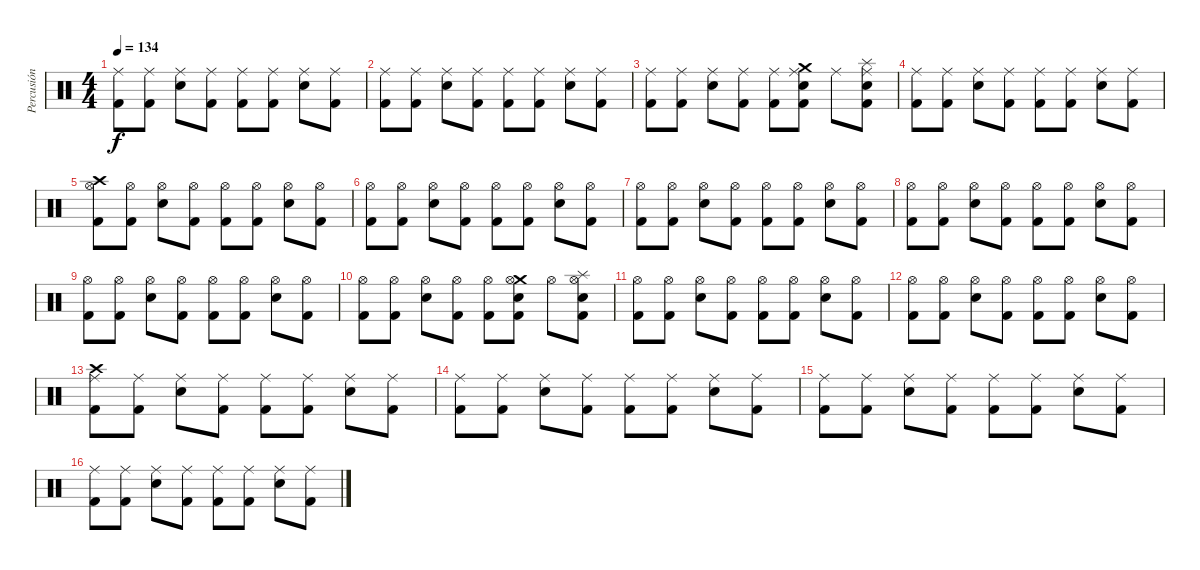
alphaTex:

\track ("Percusión" "Percusión") {instrument percussion}
\staff {score}
\articulation defaults
\ts (4 4)
\tempo 134
\clef neutral
\ks c
("Ride (middle)" "Kick (hit) 2").8{dy f} ("Ride (middle)" "Kick (hit) 2").8 ("Ride (middle)" "Snare (hit) 2").8 ("Ride (middle)" "Kick (hit) 2").8 ("Ride (middle)" "Kick (hit) 2").8 ("Ride (middle)" "Kick (hit) 2").8 ("Ride (middle)" "Snare (hit) 2").8 ("Ride (middle)" "Kick (hit) 2").8 |
("Ride (middle)" "Kick (hit) 2").8 ("Ride (middle)" "Kick (hit) 2").8 ("Ride (middle)" "Snare (hit) 2").8 ("Ride (middle)" "Kick (hit) 2").8 ("Ride (middle)" "Kick (hit) 2").8 ("Ride (middle)" "Kick (hit) 2").8 ("Ride (middle)" "Snare (hit) 2").8 ("Ride (middle)" "Kick (hit) 2").8 |
("Ride (middle)" "Kick (hit) 2").8 ("Ride (middle)" "Kick (hit) 2").8 ("Ride (middle)" "Snare (hit) 2").8 ("Ride (middle)" "Kick (hit) 2").8 ("Ride (middle)" "Kick (hit) 2").8 ("Crash medium (hit)" "Ride (middle)" "Snare (hit) 2" "Kick (hit) 2").8 "Ride (middle)".8 ("Splash (hit)" "Ride (middle)" "Snare (hit) 2" "Kick (hit) 2").8 |
("Ride (middle)" "Kick (hit) 2").8 ("Ride (middle)" "Kick (hit) 2").8 ("Ride (middle)" "Snare (hit) 2").8 ("Ride (middle)" "Kick (hit) 2").8 ("Ride (middle)" "Kick (hit) 2").8 ("Ride (middle)" "Kick (hit) 2").8 ("Ride (middle)" "Snare (hit) 2").8 ("Ride (middle)" "Kick (hit) 2").8 |
("Crash high (hit)" "Hi-Hat (open)" "Kick (hit) 2").8 ("Hi-Hat (open)" "Kick (hit) 2").8 ("Hi-Hat (open)" "Snare (hit) 2").8 ("Hi-Hat (open)" "Kick (hit) 2").8 ("Hi-Hat (open)" "Kick (hit) 2").8 ("Hi-Hat (open)" "Kick (hit) 2").8 ("Hi-Hat (open)" "Snare (hit) 2").8 ("Hi-Hat (open)" "Kick (hit) 2").8 |
("Hi-Hat (open)" "Kick (hit) 2").8 ("Hi-Hat (open)" "Kick (hit) 2").8 ("Hi-Hat (open)" "Snare (hit) 2").8 ("Hi-Hat (open)" "Kick (hit) 2").8 ("Hi-Hat (open)" "Kick (hit) 2").8 ("Hi-Hat (open)" "Kick (hit) 2").8 ("Hi-Hat (open)" "Snare (hit) 2").8 ("Hi-Hat (open)" "Kick (hit) 2").8 |
("Hi-Hat (open)" "Kick (hit) 2").8 ("Hi-Hat (open)" "Kick (hit) 2").8 ("Hi-Hat (open)" "Snare (hit) 2").8 ("Hi-Hat (open)" "Kick (hit) 2").8 ("Hi-Hat (open)" "Kick (hit) 2").8 ("Hi-Hat (open)" "Kick (hit) 2").8 ("Hi-Hat (open)" "Snare (hit) 2").8 ("Hi-Hat (open)" "Kick (hit) 2").8 |
("Hi-Hat (open)" "Kick (hit) 2").8 ("Hi-Hat (open)" "Kick (hit) 2").8 ("Hi-Hat (open)" "Snare (hit) 2").8 ("Hi-Hat (open)" "Kick (hit) 2").8 ("Hi-Hat (open)" "Kick (hit) 2").8 ("Hi-Hat (open)" "Kick (hit) 2").8 ("Hi-Hat (open)" "Snare (hit) 2").8 ("Hi-Hat (open)" "Kick (hit) 2").8 |
("Hi-Hat (open)" "Kick (hit) 2").8 ("Hi-Hat (open)" "Kick (hit) 2").8 ("Hi-Hat (open)" "Snare (hit) 2").8 ("Hi-Hat (open)" "Kick (hit) 2").8 ("Hi-Hat (open)" "Kick (hit) 2").8 ("Hi-Hat (open)" "Kick (hit) 2").8 ("Hi-Hat (open)" "Snare (hit) 2").8 ("Hi-Hat (open)" "Kick (hit) 2").8 |
("Hi-Hat (open)" "Kick (hit) 2").8 ("Hi-Hat (open)" "Kick (hit) 2").8 ("Hi-Hat (open)" "Snare (hit) 2").8 ("Hi-Hat (open)" "Kick (hit) 2").8 ("Hi-Hat (open)" "Kick (hit) 2").8 ("Crash medium (hit)" "Hi-Hat (open)" "Snare (hit) 2" "Kick (hit) 2").8 "Hi-Hat (open)".8 ("Splash (hit)" "Hi-Hat (open)" "Snare (hit) 2" "Kick (hit) 2").8 |
("Hi-Hat (open)" "Kick (hit) 2").8 ("Hi-Hat (open)" "Kick (hit) 2").8 ("Hi-Hat (open)" "Snare (hit) 2").8 ("Hi-Hat (open)" "Kick (hit) 2").8 ("Hi-Hat (open)" "Kick (hit) 2").8 ("Hi-Hat (open)" "Kick (hit) 2").8 ("Hi-Hat (open)" "Snare (hit) 2").8 ("Hi-Hat (open)" "Kick (hit) 2").8 |
("Hi-Hat (open)" "Kick (hit) 2").8 ("Hi-Hat (open)" "Kick (hit) 2").8 ("Hi-Hat (open)" "Snare (hit) 2").8 ("Hi-Hat (open)" "Kick (hit) 2").8 ("Hi-Hat (open)" "Kick (hit) 2").8 ("Hi-Hat (open)" "Kick (hit) 2").8 ("Hi-Hat (open)" "Snare (hit) 2").8 ("Hi-Hat (open)" "Kick (hit) 2").8 |
("Crash high (hit)" "Ride (middle)" "Kick (hit) 2").8 ("Ride (middle)" "Kick (hit) 2").8 ("Ride (middle)" "Snare (hit) 2").8 ("Ride (middle)" "Kick (hit) 2").8 ("Ride (middle)" "Kick (hit) 2").8 ("Ride (middle)" "Kick (hit) 2").8 ("Ride (middle)" "Snare (hit) 2").8 ("Ride (middle)" "Kick (hit) 2").8 |
("Ride (middle)" "Kick (hit) 2").8 ("Ride (middle)" "Kick (hit) 2").8 ("Ride (middle)" "Snare (hit) 2").8 ("Ride (middle)" "Kick (hit) 2").8 ("Ride (middle)" "Kick (hit) 2").8 ("Ride (middle)" "Kick (hit) 2").8 ("Ride (middle)" "Snare (hit) 2").8 ("Ride (middle)" "Kick (hit) 2").8 |
("Ride (middle)" "Kick (hit) 2").8 ("Ride (middle)" "Kick (hit) 2").8 ("Ride (middle)" "Snare (hit) 2").8 ("Ride (middle)" "Kick (hit) 2").8 ("Ride (middle)" "Kick (hit) 2").8 ("Ride (middle)" "Kick (hit) 2").8 ("Ride (middle)" "Snare (hit) 2").8 ("Ride (middle)" "Kick (hit) 2").8 |
("Ride (middle)" "Kick (hit) 2").8 ("Ride (middle)" "Kick (hit) 2").8 ("Ride (middle)" "Snare (hit) 2").8 ("Ride (middle)" "Kick (hit) 2").8 ("Ride (middle)" "Kick (hit) 2").8 ("Ride (middle)" "Kick (hit) 2").8 ("Ride (middle)" "Snare (hit) 2").8 ("Ride (middle)" "Kick (hit) 2").8
